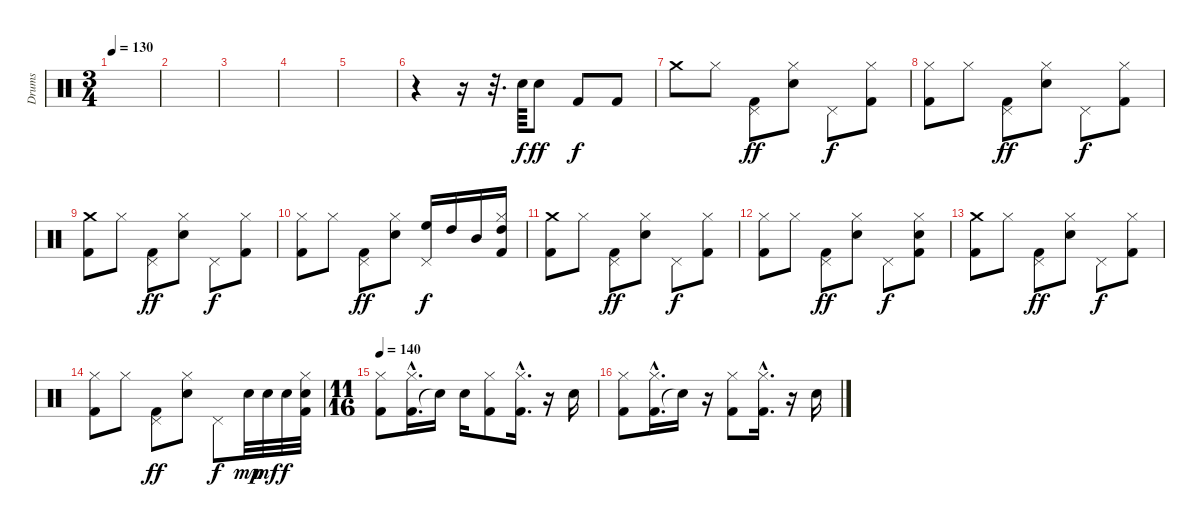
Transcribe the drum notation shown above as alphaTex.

\track ("Drums" "Drums") {instrument percussion}
\staff {score}
\articulation defaults
\ts (3 4)
\tempo 130
\clef neutral
\ks c
|
|
|
|
|
r.4 r.16 r.32{d} "Electric Snare (hit)".64 "Electric Snare (hit)".8{dy ff} "Kick (hit) 2".8{dy f} "Kick (hit) 2".8 |
"Crash medium (hit)".8 "Hi-Hat (closed)".8 ("Kick (hit) 2" "Pedal Hi-Hat (hit)").8{dy ff} ("Electric Snare (hit)" "Hi-Hat (closed)").8 "Pedal Hi-Hat (hit)".8{dy f} ("Kick (hit) 2" "Hi-Hat (closed)").8 |
("Kick (hit) 2" "Hi-Hat (closed)").8 "Hi-Hat (closed)".8 ("Kick (hit) 2" "Pedal Hi-Hat (hit)").8{dy ff} ("Electric Snare (hit)" "Hi-Hat (closed)").8 "Pedal Hi-Hat (hit)".8{dy f} ("Kick (hit) 2" "Hi-Hat (closed)").8 |
("Kick (hit) 2" "Crash medium (hit)").8 "Hi-Hat (closed)".8 ("Kick (hit) 2" "Pedal Hi-Hat (hit)").8{dy ff} ("Electric Snare (hit)" "Hi-Hat (closed)").8 "Pedal Hi-Hat (hit)".8{dy f} ("Kick (hit) 2" "Hi-Hat (closed)").8 |
("Kick (hit) 2" "Hi-Hat (closed)").8 "Hi-Hat (closed)".8 ("Kick (hit) 2" "Pedal Hi-Hat (hit)").8{dy ff} ("Electric Snare (hit)" "Hi-Hat (closed)").8 ("High Floor Tom (hit)" "Pedal Hi-Hat (hit)").16{dy f} "High Tom (hit)".16 "Mid Tom (hit)".16 ("Kick (hit) 2" "High Tom (hit)" "Hi-Hat (closed)").16 |
("Kick (hit) 2" "Crash medium (hit)").8 "Hi-Hat (closed)".8 ("Kick (hit) 2" "Pedal Hi-Hat (hit)").8{dy ff} ("Electric Snare (hit)" "Hi-Hat (closed)").8 "Pedal Hi-Hat (hit)".8{dy f} ("Kick (hit) 2" "Hi-Hat (closed)").8 |
("Kick (hit) 2" "Hi-Hat (closed)").8 "Hi-Hat (closed)".8 ("Kick (hit) 2" "Pedal Hi-Hat (hit)").8{dy ff} ("Electric Snare (hit)" "Hi-Hat (closed)").8 "Pedal Hi-Hat (hit)".8{dy f} ("Kick (hit) 2" "Electric Snare (hit)" "Hi-Hat (closed)").8 |
("Kick (hit) 2" "Crash medium (hit)").8 "Hi-Hat (closed)".8 ("Kick (hit) 2" "Pedal Hi-Hat (hit)").8{dy ff} ("Electric Snare (hit)" "Hi-Hat (closed)").8 "Pedal Hi-Hat (hit)".8{dy f} ("Kick (hit) 2" "Hi-Hat (closed)").8 |
("Kick (hit) 2" "Hi-Hat (closed)").8 "Hi-Hat (closed)".8 ("Kick (hit) 2" "Pedal Hi-Hat (hit)").8{dy ff} ("Electric Snare (hit)" "Hi-Hat (closed)").8 "Pedal Hi-Hat (hit)".8{dy f} "Electric Snare (hit)".32{dy mp} "Electric Snare (hit)".32{dy mf} "Electric Snare (hit)".32{dy f} ("Kick (hit) 2" "Electric Snare (hit)" "Hi-Hat (closed)").32 |
\ts (11 16)
\tempo 140
("Kick (hit) 2" "Hi-Hat (closed)").8 ("Kick (hit) 2"{hac} "Hi-Hat (closed)"{hac}).16{d} "Snare (hit)"{t}.16 "Electric Snare (hit)".16 ("Kick (hit) 2" "Hi-Hat (closed)").8 ("Kick (hit) 2"{hac} "Hi-Hat (closed)"{hac}).16{d} r.16 "Electric Snare (hit)".16 |
("Kick (hit) 2" "Hi-Hat (closed)").8 ("Kick (hit) 2"{hac} "Hi-Hat (closed)"{hac}).16{d} "Snare (hit)"{t}.16 r.16 ("Kick (hit) 2" "Hi-Hat (closed)").8 ("Kick (hit) 2"{hac} "Hi-Hat (closed)"{hac}).16{d} r.16 "Electric Snare (hit)".16
